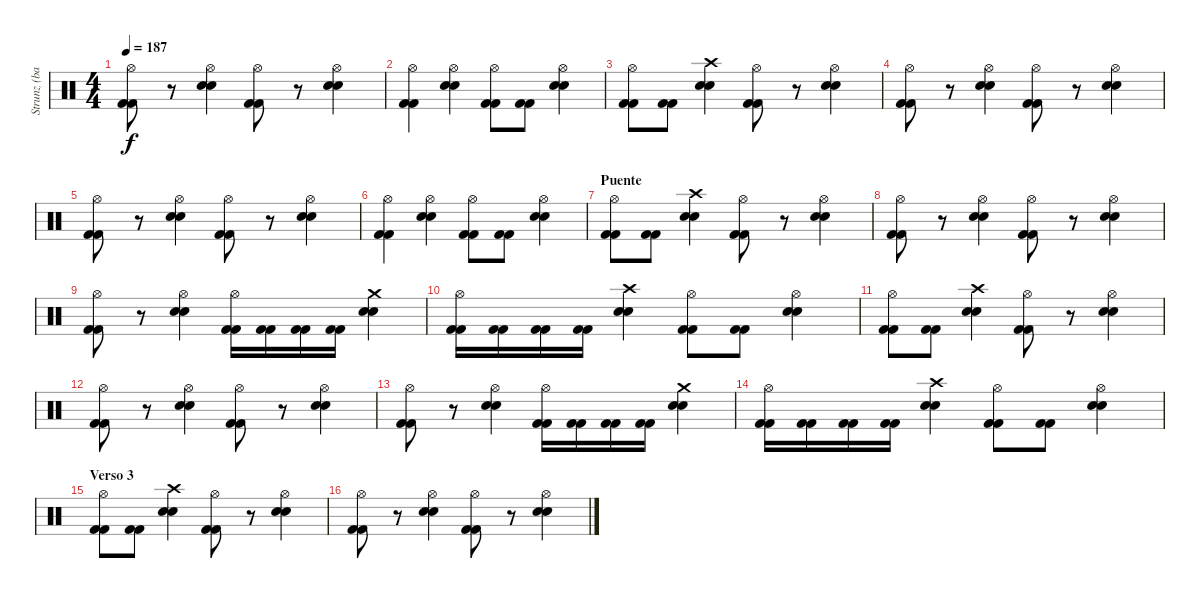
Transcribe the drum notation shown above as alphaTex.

\track ("Strunz (bateria)" "Strunz (ba") {instrument percussion}
\staff {score}
\articulation defaults
\ts (4 4)
\tempo 187
\clef neutral
\ks c
("Hi-Hat (open)" "Kick (hit) 2" "Kick (hit) 2").8{dy f} r.8 ("Hi-Hat (open)" "Snare (hit) 2" "Snare (hit) 2").4 ("Hi-Hat (open)" "Kick (hit) 2" "Kick (hit) 2").8 r.8 ("Hi-Hat (open)" "Snare (hit) 2" "Snare (hit) 2").4 |
("Hi-Hat (open)" "Kick (hit) 2" "Kick (hit) 2").4 ("Hi-Hat (open)" "Snare (hit) 2" "Snare (hit) 2").4 ("Hi-Hat (open)" "Kick (hit) 2" "Kick (hit) 2").8 ("Kick (hit) 2" "Kick (hit) 2").8 ("Hi-Hat (open)" "Snare (hit) 2" "Snare (hit) 2").4 |
("Hi-Hat (open)" "Kick (hit) 2" "Kick (hit) 2").8 ("Kick (hit) 2" "Kick (hit) 2").8 ("Crash high (hit)" "Snare (hit) 2" "Snare (hit) 2").4 ("Hi-Hat (open)" "Kick (hit) 2" "Kick (hit) 2").8 r.8 ("Hi-Hat (open)" "Snare (hit) 2" "Snare (hit) 2").4 |
("Hi-Hat (open)" "Kick (hit) 2" "Kick (hit) 2").8 r.8 ("Hi-Hat (open)" "Snare (hit) 2" "Snare (hit) 2").4 ("Hi-Hat (open)" "Kick (hit) 2" "Kick (hit) 2").8 r.8 ("Hi-Hat (open)" "Snare (hit) 2" "Snare (hit) 2").4 |
("Hi-Hat (open)" "Kick (hit) 2" "Kick (hit) 2").8 r.8 ("Hi-Hat (open)" "Snare (hit) 2" "Snare (hit) 2").4 ("Hi-Hat (open)" "Kick (hit) 2" "Kick (hit) 2").8 r.8 ("Hi-Hat (open)" "Snare (hit) 2" "Snare (hit) 2").4 |
("Hi-Hat (open)" "Kick (hit) 2" "Kick (hit) 2").4 ("Hi-Hat (open)" "Snare (hit) 2" "Snare (hit) 2").4 ("Hi-Hat (open)" "Kick (hit) 2" "Kick (hit) 2").8 ("Kick (hit) 2" "Kick (hit) 2").8 ("Hi-Hat (open)" "Snare (hit) 2" "Snare (hit) 2").4 |
\section ("" "Puente")
("Hi-Hat (open)" "Kick (hit) 2" "Kick (hit) 2").8 ("Kick (hit) 2" "Kick (hit) 2").8 ("Crash high (hit)" "Snare (hit) 2" "Snare (hit) 2").4 ("Hi-Hat (open)" "Kick (hit) 2" "Kick (hit) 2").8 r.8 ("Hi-Hat (open)" "Snare (hit) 2" "Snare (hit) 2").4 |
("Hi-Hat (open)" "Kick (hit) 2" "Kick (hit) 2").8 r.8 ("Hi-Hat (open)" "Snare (hit) 2" "Snare (hit) 2").4 ("Hi-Hat (open)" "Kick (hit) 2" "Kick (hit) 2").8 r.8 ("Hi-Hat (open)" "Snare (hit) 2" "Snare (hit) 2").4 |
("Hi-Hat (open)" "Kick (hit) 2" "Kick (hit) 2").8 r.8 ("Hi-Hat (open)" "Snare (hit) 2" "Snare (hit) 2").4 ("Hi-Hat (open)" "Kick (hit) 2" "Kick (hit) 2").16 ("Kick (hit) 2" "Kick (hit) 2").16 ("Kick (hit) 2" "Kick (hit) 2").16 ("Kick (hit) 2" "Kick (hit) 2").16 ("Crash medium (hit)" "Snare (hit) 2" "Snare (hit) 2").4 |
("Hi-Hat (open)" "Kick (hit) 2" "Kick (hit) 2").16 ("Kick (hit) 2" "Kick (hit) 2").16 ("Kick (hit) 2" "Kick (hit) 2").16 ("Kick (hit) 2" "Kick (hit) 2").16 ("Crash high (hit)" "Snare (hit) 2" "Snare (hit) 2").4 ("Hi-Hat (open)" "Kick (hit) 2" "Kick (hit) 2").8 ("Kick (hit) 2" "Kick (hit) 2").8 ("Hi-Hat (open)" "Snare (hit) 2" "Snare (hit) 2").4 |
("Hi-Hat (open)" "Kick (hit) 2" "Kick (hit) 2").8 ("Kick (hit) 2" "Kick (hit) 2").8 ("Crash high (hit)" "Snare (hit) 2" "Snare (hit) 2").4 ("Hi-Hat (open)" "Kick (hit) 2" "Kick (hit) 2").8 r.8 ("Hi-Hat (open)" "Snare (hit) 2" "Snare (hit) 2").4 |
("Hi-Hat (open)" "Kick (hit) 2" "Kick (hit) 2").8 r.8 ("Hi-Hat (open)" "Snare (hit) 2" "Snare (hit) 2").4 ("Hi-Hat (open)" "Kick (hit) 2" "Kick (hit) 2").8 r.8 ("Hi-Hat (open)" "Snare (hit) 2" "Snare (hit) 2").4 |
("Hi-Hat (open)" "Kick (hit) 2" "Kick (hit) 2").8 r.8 ("Hi-Hat (open)" "Snare (hit) 2" "Snare (hit) 2").4 ("Hi-Hat (open)" "Kick (hit) 2" "Kick (hit) 2").16 ("Kick (hit) 2" "Kick (hit) 2").16 ("Kick (hit) 2" "Kick (hit) 2").16 ("Kick (hit) 2" "Kick (hit) 2").16 ("Crash medium (hit)" "Snare (hit) 2" "Snare (hit) 2").4 |
("Hi-Hat (open)" "Kick (hit) 2" "Kick (hit) 2").16 ("Kick (hit) 2" "Kick (hit) 2").16 ("Kick (hit) 2" "Kick (hit) 2").16 ("Kick (hit) 2" "Kick (hit) 2").16 ("Crash high (hit)" "Snare (hit) 2" "Snare (hit) 2").4 ("Hi-Hat (open)" "Kick (hit) 2" "Kick (hit) 2").8 ("Kick (hit) 2" "Kick (hit) 2").8 ("Hi-Hat (open)" "Snare (hit) 2" "Snare (hit) 2").4 |
\section ("" "Verso 3")
("Hi-Hat (open)" "Kick (hit) 2" "Kick (hit) 2").8 ("Kick (hit) 2" "Kick (hit) 2").8 ("Crash high (hit)" "Snare (hit) 2" "Snare (hit) 2").4 ("Hi-Hat (open)" "Kick (hit) 2" "Kick (hit) 2").8 r.8 ("Hi-Hat (open)" "Snare (hit) 2" "Snare (hit) 2").4 |
("Hi-Hat (open)" "Kick (hit) 2" "Kick (hit) 2").8 r.8 ("Hi-Hat (open)" "Snare (hit) 2" "Snare (hit) 2").4 ("Hi-Hat (open)" "Kick (hit) 2" "Kick (hit) 2").8 r.8 ("Hi-Hat (open)" "Snare (hit) 2" "Snare (hit) 2").4
